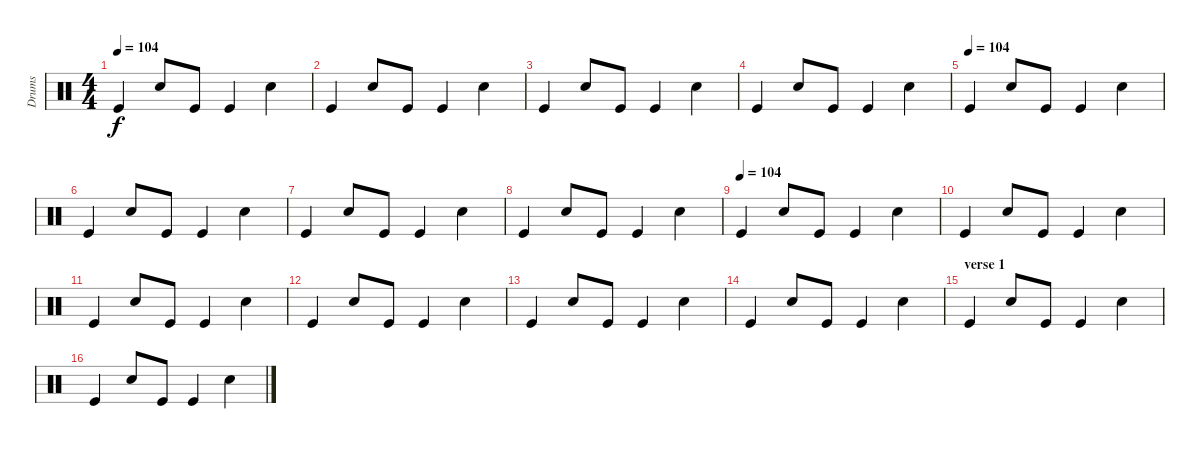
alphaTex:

\track ("Drums" "Drums") {instrument percussion}
\staff {score}
\articulation defaults
\ts (4 4)
\tempo 104
\clef neutral
\ks c "Kick (hit)".4{dy f} "Snare (hit) 2".8 "Kick (hit)".8 "Kick (hit)".4 "Snare (hit) 2".4
|
"Kick (hit)".4 "Snare (hit) 2".8 "Kick (hit)".8 "Kick (hit)".4 "Snare (hit) 2".4 |
"Kick (hit)".4 "Snare (hit) 2".8 "Kick (hit)".8 "Kick (hit)".4 "Snare (hit) 2".4 |
"Kick (hit)".4 "Snare (hit) 2".8 "Kick (hit)".8 "Kick (hit)".4 "Snare (hit) 2".4 |
\tempo (104)
"Kick (hit)".4 "Snare (hit) 2".8 "Kick (hit)".8 "Kick (hit)".4 "Snare (hit) 2".4 |
"Kick (hit)".4 "Snare (hit) 2".8 "Kick (hit)".8 "Kick (hit)".4 "Snare (hit) 2".4 |
"Kick (hit)".4 "Snare (hit) 2".8 "Kick (hit)".8 "Kick (hit)".4 "Snare (hit) 2".4 |
"Kick (hit)".4 "Snare (hit) 2".8 "Kick (hit)".8 "Kick (hit)".4 "Snare (hit) 2".4 |
\tempo (104)
"Kick (hit)".4 "Snare (hit) 2".8 "Kick (hit)".8 "Kick (hit)".4 "Snare (hit) 2".4 |
"Kick (hit)".4 "Snare (hit) 2".8 "Kick (hit)".8 "Kick (hit)".4 "Snare (hit) 2".4 |
"Kick (hit)".4 "Snare (hit) 2".8 "Kick (hit)".8 "Kick (hit)".4 "Snare (hit) 2".4 |
"Kick (hit)".4 "Snare (hit) 2".8 "Kick (hit)".8 "Kick (hit)".4 "Snare (hit) 2".4 |
"Kick (hit)".4 "Snare (hit) 2".8 "Kick (hit)".8 "Kick (hit)".4 "Snare (hit) 2".4 |
"Kick (hit)".4 "Snare (hit) 2".8 "Kick (hit)".8 "Kick (hit)".4 "Snare (hit) 2".4 |
\section ("" "verse 1")
"Kick (hit)".4 "Snare (hit) 2".8 "Kick (hit)".8 "Kick (hit)".4 "Snare (hit) 2".4 |
"Kick (hit)".4 "Snare (hit) 2".8 "Kick (hit)".8 "Kick (hit)".4 "Snare (hit) 2".4
